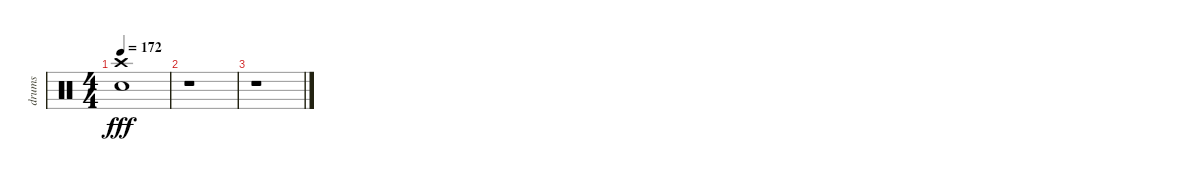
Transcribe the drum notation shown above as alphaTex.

\track ("drums" "drums") {instrument percussion}
\staff {score}
\articulation defaults
\ts (4 4)
\tempo 172
\clef neutral
\ks c
("Crash high (hit)" "Electric Snare (hit)").1{dy fff} |
r.1 |
r.1
